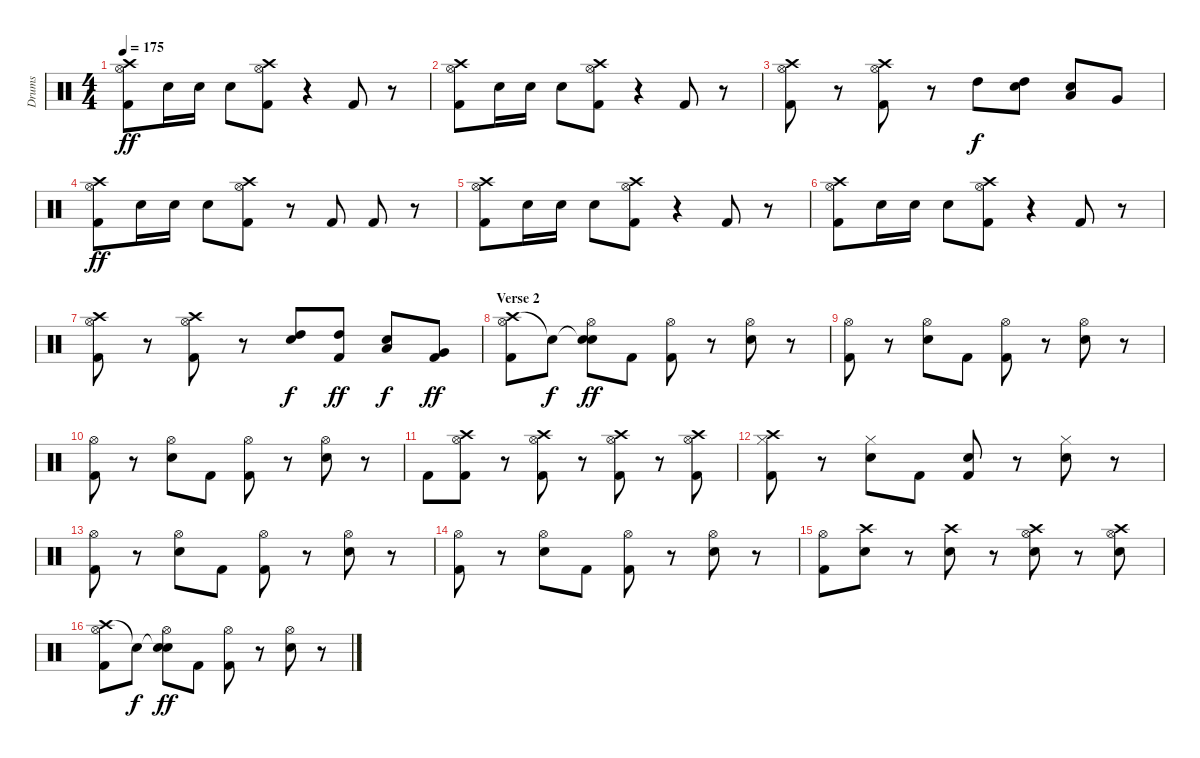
\track ("Drums" "Drums") {instrument percussion}
\staff {score}
\articulation defaults
\ts (4 4)
\tempo 175
\clef neutral
\ks c
("Crash high (hit)" "Hi-Hat (open)" "Kick (hit) 2").8{dy ff} "Electric Snare (hit)".16 "Electric Snare (hit)".16 "Electric Snare (hit)".8 ("Crash high (hit)" "Hi-Hat (open)" "Kick (hit) 2").8 r.4 "Kick (hit) 2".8 r.8 |
("Crash high (hit)" "Hi-Hat (open)" "Kick (hit) 2").8 "Electric Snare (hit)".16 "Electric Snare (hit)".16 "Electric Snare (hit)".8 ("Crash high (hit)" "Hi-Hat (open)" "Kick (hit) 2").8 r.4 "Kick (hit) 2".8 r.8 |
("Crash high (hit)" "Hi-Hat (open)" "Kick (hit) 2").8 r.8 ("Crash high (hit)" "Hi-Hat (open)" "Kick (hit) 2").8 r.8 "High Tom (hit)".8{dy f} ("High Tom (hit)" "Electric Snare (hit)").8 ("Low Tom (hit)" "Electric Snare (hit)").8 "Very Low Tom (hit)".8 |
("Crash high (hit)" "Hi-Hat (open)" "Kick (hit) 2").8{dy ff} "Electric Snare (hit)".16 "Electric Snare (hit)".16 "Electric Snare (hit)".8 ("Crash high (hit)" "Hi-Hat (open)" "Kick (hit) 2").8 r.8 "Kick (hit) 2".8 "Kick (hit) 2".8 r.8 |
("Crash high (hit)" "Hi-Hat (open)" "Kick (hit) 2").8 "Electric Snare (hit)".16 "Electric Snare (hit)".16 "Electric Snare (hit)".8 ("Crash high (hit)" "Hi-Hat (open)" "Kick (hit) 2").8 r.4 "Kick (hit) 2".8 r.8 |
("Crash high (hit)" "Hi-Hat (open)" "Kick (hit) 2").8 "Electric Snare (hit)".16 "Electric Snare (hit)".16 "Electric Snare (hit)".8 ("Crash high (hit)" "Hi-Hat (open)" "Kick (hit) 2").8 r.4 "Kick (hit) 2".8 r.8 |
("Crash high (hit)" "Hi-Hat (open)" "Kick (hit) 2").8 r.8 ("Crash high (hit)" "Hi-Hat (open)" "Kick (hit) 2").8 r.8 ("High Tom (hit)" "Electric Snare (hit)").8{dy f} ("High Tom (hit)" "Kick (hit) 2").8{dy ff} ("Low Tom (hit)" "Electric Snare (hit)").8{dy f} ("Very Low Tom (hit)" "Kick (hit) 2").8{dy ff} |
\section ("" "Verse 2")
("Crash high (hit)" "Hi-Hat (open)" "Kick (hit) 2").8 "Snare (hit)"{t}.8{dy f} ("Snare (hit)"{t} "Hi-Hat (open)" "Electric Snare (hit)").8{dy ff} "Kick (hit) 2".8 ("Hi-Hat (open)" "Kick (hit) 2").8 r.8 ("Hi-Hat (open)" "Electric Snare (hit)").8 r.8 |
("Hi-Hat (open)" "Kick (hit) 2").8 r.8 ("Hi-Hat (open)" "Electric Snare (hit)").8 "Kick (hit) 2".8 ("Hi-Hat (open)" "Kick (hit) 2").8 r.8 ("Hi-Hat (open)" "Electric Snare (hit)").8 r.8 |
("Hi-Hat (open)" "Kick (hit) 2").8 r.8 ("Hi-Hat (open)" "Electric Snare (hit)").8 "Kick (hit) 2".8 ("Hi-Hat (open)" "Kick (hit) 2").8 r.8 ("Hi-Hat (open)" "Electric Snare (hit)").8 r.8 |
"Kick (hit) 2".8 ("Crash high (hit)" "Hi-Hat (open)" "Kick (hit) 2").8 r.8 ("Crash high (hit)" "Hi-Hat (open)" "Kick (hit) 2").8 r.8 ("Crash high (hit)" "Hi-Hat (open)" "Kick (hit) 2").8 r.8 ("Crash high (hit)" "Hi-Hat (open)" "Kick (hit) 2").8 |
("Crash high (hit)" "Hi-Hat (closed)" "Kick (hit) 2").8 r.8 ("Hi-Hat (closed)" "Electric Snare (hit)").8 "Kick (hit) 2".8 ("Electric Snare (hit)" "Kick (hit) 2").8 r.8 ("Hi-Hat (closed)" "Electric Snare (hit)").8 r.8 |
("Hi-Hat (open)" "Kick (hit) 2").8 r.8 ("Hi-Hat (open)" "Electric Snare (hit)").8 "Kick (hit) 2".8 ("Hi-Hat (open)" "Kick (hit) 2").8 r.8 ("Hi-Hat (open)" "Electric Snare (hit)").8 r.8 |
("Hi-Hat (open)" "Kick (hit) 2").8 r.8 ("Hi-Hat (open)" "Electric Snare (hit)").8 "Kick (hit) 2".8 ("Hi-Hat (open)" "Kick (hit) 2").8 r.8 ("Hi-Hat (open)" "Electric Snare (hit)").8 r.8 |
("Hi-Hat (open)" "Kick (hit) 2").8 ("Crash high (hit)" "Electric Snare (hit)").8 r.8 ("Crash high (hit)" "Electric Snare (hit)").8 r.8 ("Crash high (hit)" "Hi-Hat (open)" "Electric Snare (hit)").8 r.8 ("Crash high (hit)" "Hi-Hat (open)" "Electric Snare (hit)").8 |
("Crash high (hit)" "Hi-Hat (open)" "Kick (hit) 2").8 "Snare (hit)"{t}.8{dy f} ("Snare (hit)"{t} "Hi-Hat (open)" "Electric Snare (hit)").8{dy ff} "Kick (hit) 2".8 ("Hi-Hat (open)" "Kick (hit) 2").8 r.8 ("Hi-Hat (open)" "Electric Snare (hit)").8 r.8
